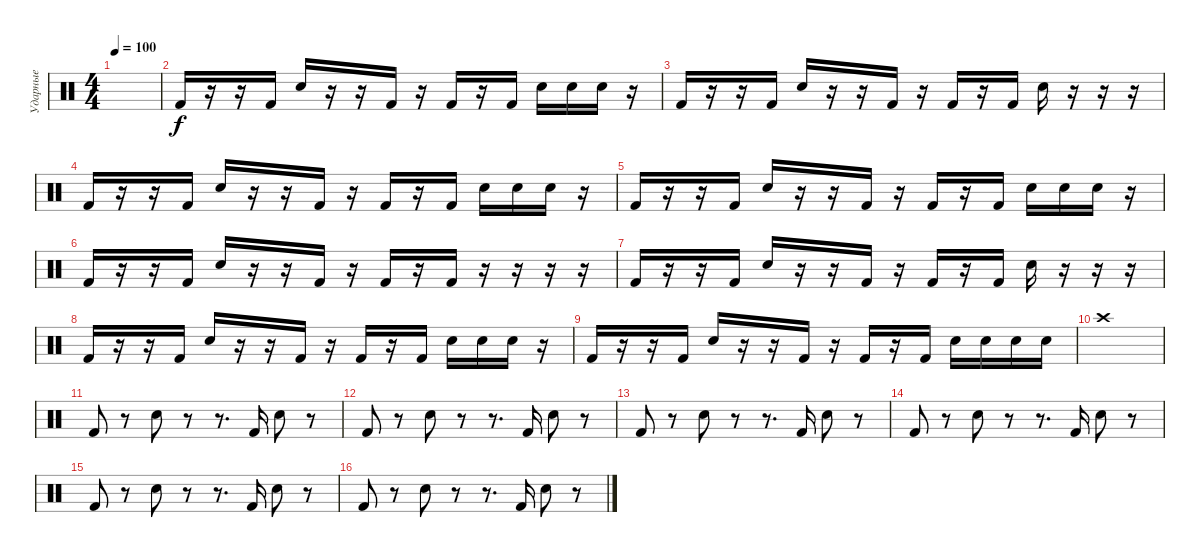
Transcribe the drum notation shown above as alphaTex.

\track ("Ударные" "Ударные") {instrument percussion}
\staff {score}
\articulation defaults
\ts (4 4)
\tempo 100
\clef neutral
\ks c
|
"Kick (hit) 2".16 r.16 r.16 "Kick (hit) 2".16 "Electric Snare (hit)".16 r.16 r.16 "Kick (hit) 2".16 r.16 "Kick (hit) 2".16 r.16 "Kick (hit) 2".16 "Electric Snare (hit)".16 "Electric Snare (hit)".16 "Electric Snare (hit)".16 r.16 |
"Kick (hit) 2".16 r.16 r.16 "Kick (hit) 2".16 "Electric Snare (hit)".16 r.16 r.16 "Kick (hit) 2".16 r.16 "Kick (hit) 2".16 r.16 "Kick (hit) 2".16 "Electric Snare (hit)".16 r.16 r.16 r.16 |
"Kick (hit) 2".16 r.16 r.16 "Kick (hit) 2".16 "Electric Snare (hit)".16 r.16 r.16 "Kick (hit) 2".16 r.16 "Kick (hit) 2".16 r.16 "Kick (hit) 2".16 "Electric Snare (hit)".16 "Electric Snare (hit)".16 "Electric Snare (hit)".16 r.16 |
"Kick (hit) 2".16 r.16 r.16 "Kick (hit) 2".16 "Electric Snare (hit)".16 r.16 r.16 "Kick (hit) 2".16 r.16 "Kick (hit) 2".16 r.16 "Kick (hit) 2".16 "Electric Snare (hit)".16 "Electric Snare (hit)".16 "Electric Snare (hit)".16 r.16 |
"Kick (hit) 2".16 r.16 r.16 "Kick (hit) 2".16 "Electric Snare (hit)".16 r.16 r.16 "Kick (hit) 2".16 r.16 "Kick (hit) 2".16 r.16 "Kick (hit) 2".16 r.16 r.16 r.16 r.16 |
"Kick (hit) 2".16 r.16 r.16 "Kick (hit) 2".16 "Electric Snare (hit)".16 r.16 r.16 "Kick (hit) 2".16 r.16 "Kick (hit) 2".16 r.16 "Kick (hit) 2".16 "Electric Snare (hit)".16 r.16 r.16 r.16 |
"Kick (hit) 2".16 r.16 r.16 "Kick (hit) 2".16 "Electric Snare (hit)".16 r.16 r.16 "Kick (hit) 2".16 r.16 "Kick (hit) 2".16 r.16 "Kick (hit) 2".16 "Electric Snare (hit)".16 "Electric Snare (hit)".16 "Electric Snare (hit)".16 r.16 |
"Kick (hit) 2".16 r.16 r.16 "Kick (hit) 2".16 "Electric Snare (hit)".16 r.16 r.16 "Kick (hit) 2".16 r.16 "Kick (hit) 2".16 r.16 "Kick (hit) 2".16 "Electric Snare (hit)".16 "Electric Snare (hit)".16 "Electric Snare (hit)".16 "Electric Snare (hit)".16 |
"Crash high (hit)".1 |
"Kick (hit) 2".8 r.8 "Electric Snare (hit)".8 r.8 r.8{d} "Kick (hit) 2".16 "Electric Snare (hit)".8 r.8 |
"Kick (hit) 2".8 r.8 "Electric Snare (hit)".8 r.8 r.8{d} "Kick (hit) 2".16 "Electric Snare (hit)".8 r.8 |
"Kick (hit) 2".8 r.8 "Electric Snare (hit)".8 r.8 r.8{d} "Kick (hit) 2".16 "Electric Snare (hit)".8 r.8 |
"Kick (hit) 2".8 r.8 "Electric Snare (hit)".8 r.8 r.8{d} "Kick (hit) 2".16 "Electric Snare (hit)".8 r.8 |
"Kick (hit) 2".8 r.8 "Electric Snare (hit)".8 r.8 r.8{d} "Kick (hit) 2".16 "Electric Snare (hit)".8 r.8 |
"Kick (hit) 2".8 r.8 "Electric Snare (hit)".8 r.8 r.8{d} "Kick (hit) 2".16 "Electric Snare (hit)".8 r.8
